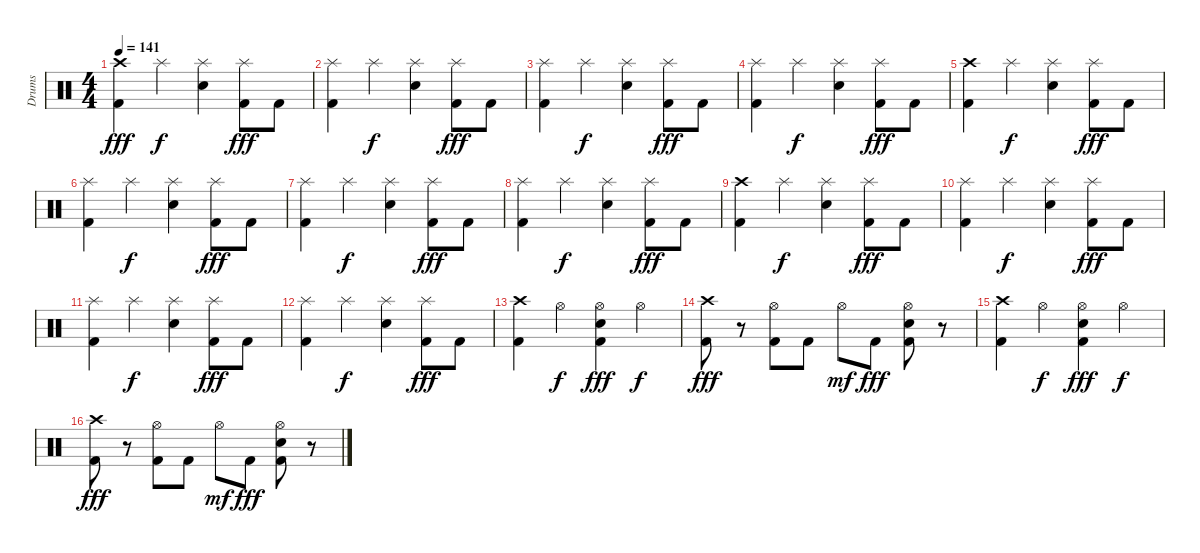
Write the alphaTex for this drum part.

\track ("Drums" "Drums") {instrument percussion}
\staff {score}
\articulation defaults
\ts (4 4)
\tempo 141
\clef neutral
\ks c
("Crash high (hit)" "Kick (hit) 2").4{dy fff} "Splash (hit)".4{dy f} ("Splash (hit)" "Electric Snare (hit)").4 ("Splash (hit)" "Kick (hit) 2").8{dy fff} "Kick (hit) 2".8 |
("Splash (hit)" "Kick (hit) 2").4 "Splash (hit)".4{dy f} ("Splash (hit)" "Electric Snare (hit)").4 ("Splash (hit)" "Kick (hit) 2").8{dy fff} "Kick (hit) 2".8 |
("Splash (hit)" "Kick (hit) 2").4 "Splash (hit)".4{dy f} ("Splash (hit)" "Electric Snare (hit)").4 ("Splash (hit)" "Kick (hit) 2").8{dy fff} "Kick (hit) 2".8 |
("Splash (hit)" "Kick (hit) 2").4 "Splash (hit)".4{dy f} ("Splash (hit)" "Electric Snare (hit)").4 ("Splash (hit)" "Kick (hit) 2").8{dy fff} "Kick (hit) 2".8 |
("Crash high (hit)" "Kick (hit) 2").4 "Splash (hit)".4{dy f} ("Splash (hit)" "Electric Snare (hit)").4 ("Splash (hit)" "Kick (hit) 2").8{dy fff} "Kick (hit) 2".8 |
("Splash (hit)" "Kick (hit) 2").4 "Splash (hit)".4{dy f} ("Splash (hit)" "Electric Snare (hit)").4 ("Splash (hit)" "Kick (hit) 2").8{dy fff} "Kick (hit) 2".8 |
("Splash (hit)" "Kick (hit) 2").4 "Splash (hit)".4{dy f} ("Splash (hit)" "Electric Snare (hit)").4 ("Splash (hit)" "Kick (hit) 2").8{dy fff} "Kick (hit) 2".8 |
("Splash (hit)" "Kick (hit) 2").4 "Splash (hit)".4{dy f} ("Splash (hit)" "Electric Snare (hit)").4 ("Splash (hit)" "Kick (hit) 2").8{dy fff} "Kick (hit) 2".8 |
("Crash high (hit)" "Kick (hit) 2").4 "Splash (hit)".4{dy f} ("Splash (hit)" "Electric Snare (hit)").4 ("Splash (hit)" "Kick (hit) 2").8{dy fff} "Kick (hit) 2".8 |
("Splash (hit)" "Kick (hit) 2").4 "Splash (hit)".4{dy f} ("Splash (hit)" "Electric Snare (hit)").4 ("Splash (hit)" "Kick (hit) 2").8{dy fff} "Kick (hit) 2".8 |
("Splash (hit)" "Kick (hit) 2").4 "Splash (hit)".4{dy f} ("Splash (hit)" "Electric Snare (hit)").4 ("Splash (hit)" "Kick (hit) 2").8{dy fff} "Kick (hit) 2".8 |
("Splash (hit)" "Kick (hit) 2").4 "Splash (hit)".4{dy f} ("Splash (hit)" "Electric Snare (hit)").4 ("Splash (hit)" "Kick (hit) 2").8{dy fff} "Kick (hit) 2".8 |
("Crash high (hit)" "Kick (hit) 2").4 "Hi-Hat (open)".4{dy f} ("Hi-Hat (open)" "Electric Snare (hit)" "Kick (hit) 2").4{dy fff} "Hi-Hat (open)".4{dy f} |
("Crash high (hit)" "Kick (hit) 2").8{dy fff} r.8 ("Hi-Hat (open)" "Kick (hit) 2").8 "Kick (hit) 2".8 "Hi-Hat (open)".8{dy mf} "Kick (hit) 2".8{dy fff} ("Hi-Hat (open)" "Electric Snare (hit)" "Kick (hit) 2").8 r.8 |
("Crash high (hit)" "Kick (hit) 2").4 "Hi-Hat (open)".4{dy f} ("Hi-Hat (open)" "Electric Snare (hit)" "Kick (hit) 2").4{dy fff} "Hi-Hat (open)".4{dy f} |
("Crash high (hit)" "Kick (hit) 2").8{dy fff} r.8 ("Hi-Hat (open)" "Kick (hit) 2").8 "Kick (hit) 2".8 "Hi-Hat (open)".8{dy mf} "Kick (hit) 2".8{dy fff} ("Hi-Hat (open)" "Electric Snare (hit)" "Kick (hit) 2").8 r.8
